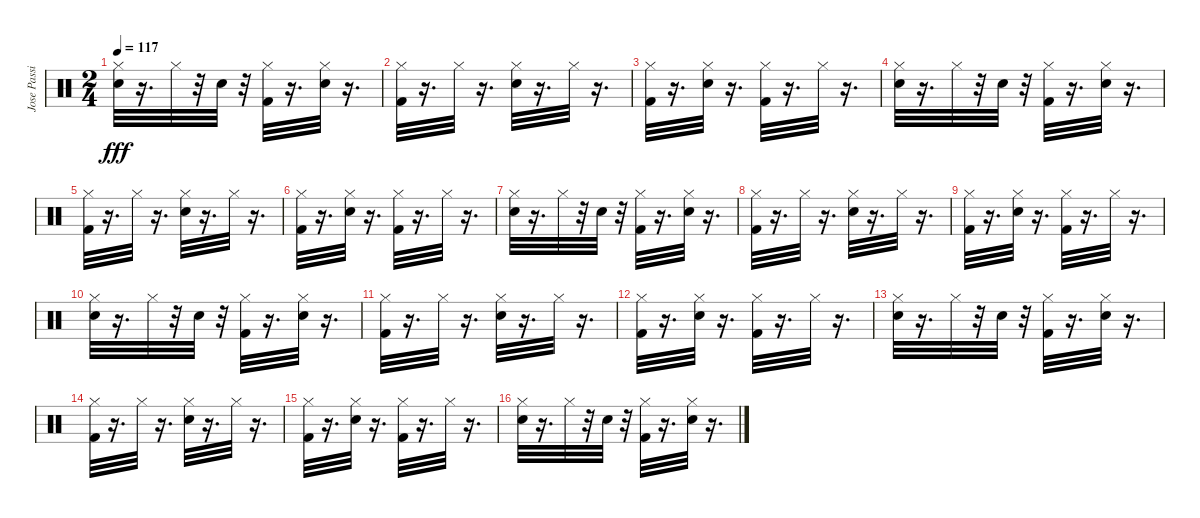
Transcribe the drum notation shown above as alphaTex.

\track ("Jose Passilas-drums" "Jose Passi") {instrument percussion}
\staff {score}
\articulation defaults
\ts (2 4)
\tempo 117
\clef neutral
\ks c
("Electric Snare (hit)" "Hi-Hat (closed)").32{dy fff} r.16{d} "Hi-Hat (closed)".32 r.32 "Electric Snare (hit)".32 r.32 ("Hi-Hat (closed)" "Kick (hit) 2").32 r.16{d} ("Electric Snare (hit)" "Hi-Hat (closed)").32 r.16{d} |
("Hi-Hat (closed)" "Kick (hit) 2").32 r.16{d} "Hi-Hat (closed)".32 r.16{d} ("Electric Snare (hit)" "Hi-Hat (closed)").32 r.16{d} "Hi-Hat (closed)".32 r.16{d} |
("Hi-Hat (closed)" "Kick (hit) 2").32 r.16{d} ("Electric Snare (hit)" "Hi-Hat (closed)").32 r.16{d} ("Kick (hit) 2" "Hi-Hat (closed)").32 r.16{d} "Hi-Hat (closed)".32 r.16{d} |
("Electric Snare (hit)" "Hi-Hat (closed)").32 r.16{d} "Hi-Hat (closed)".32 r.32 "Electric Snare (hit)".32 r.32 ("Kick (hit) 2" "Hi-Hat (closed)").32 r.16{d} ("Electric Snare (hit)" "Hi-Hat (closed)").32 r.16{d} |
("Kick (hit) 2" "Hi-Hat (closed)").32 r.16{d} "Hi-Hat (closed)".32 r.16{d} ("Electric Snare (hit)" "Hi-Hat (closed)").32 r.16{d} "Hi-Hat (closed)".32 r.16{d} |
("Kick (hit) 2" "Hi-Hat (closed)").32 r.16{d} ("Electric Snare (hit)" "Hi-Hat (closed)").32 r.16{d} ("Hi-Hat (closed)" "Kick (hit) 2").32 r.16{d} "Hi-Hat (closed)".32 r.16{d} |
("Electric Snare (hit)" "Hi-Hat (closed)").32 r.16{d} "Hi-Hat (closed)".32 r.32 "Electric Snare (hit)".32 r.32 ("Hi-Hat (closed)" "Kick (hit) 2").32 r.16{d} ("Electric Snare (hit)" "Hi-Hat (closed)").32 r.16{d} |
("Hi-Hat (closed)" "Kick (hit) 2").32 r.16{d} "Hi-Hat (closed)".32 r.16{d} ("Electric Snare (hit)" "Hi-Hat (closed)").32 r.16{d} "Hi-Hat (closed)".32 r.16{d} |
("Hi-Hat (closed)" "Kick (hit) 2").32 r.16{d} ("Electric Snare (hit)" "Hi-Hat (closed)").32 r.16{d} ("Kick (hit) 2" "Hi-Hat (closed)").32 r.16{d} "Hi-Hat (closed)".32 r.16{d} |
("Electric Snare (hit)" "Hi-Hat (closed)").32 r.16{d} "Hi-Hat (closed)".32 r.32 "Electric Snare (hit)".32 r.32 ("Kick (hit) 2" "Hi-Hat (closed)").32 r.16{d} ("Electric Snare (hit)" "Hi-Hat (closed)").32 r.16{d} |
("Kick (hit) 2" "Hi-Hat (closed)").32 r.16{d} "Hi-Hat (closed)".32 r.16{d} ("Electric Snare (hit)" "Hi-Hat (closed)").32 r.16{d} "Hi-Hat (closed)".32 r.16{d} |
("Kick (hit) 2" "Hi-Hat (closed)").32 r.16{d} ("Electric Snare (hit)" "Hi-Hat (closed)").32 r.16{d} ("Hi-Hat (closed)" "Kick (hit) 2").32 r.16{d} "Hi-Hat (closed)".32 r.16{d} |
("Electric Snare (hit)" "Hi-Hat (closed)").32 r.16{d} "Hi-Hat (closed)".32 r.32 "Electric Snare (hit)".32 r.32 ("Hi-Hat (closed)" "Kick (hit) 2").32 r.16{d} ("Electric Snare (hit)" "Hi-Hat (closed)").32 r.16{d} |
("Hi-Hat (closed)" "Kick (hit) 2").32 r.16{d} "Hi-Hat (closed)".32 r.16{d} ("Electric Snare (hit)" "Hi-Hat (closed)").32 r.16{d} "Hi-Hat (closed)".32 r.16{d} |
("Hi-Hat (closed)" "Kick (hit) 2").32 r.16{d} ("Electric Snare (hit)" "Hi-Hat (closed)").32 r.16{d} ("Kick (hit) 2" "Hi-Hat (closed)").32 r.16{d} "Hi-Hat (closed)".32 r.16{d} |
("Electric Snare (hit)" "Hi-Hat (closed)").32 r.16{d} "Hi-Hat (closed)".32 r.32 "Electric Snare (hit)".32 r.32 ("Kick (hit) 2" "Hi-Hat (closed)").32 r.16{d} ("Electric Snare (hit)" "Hi-Hat (closed)").32 r.16{d}
